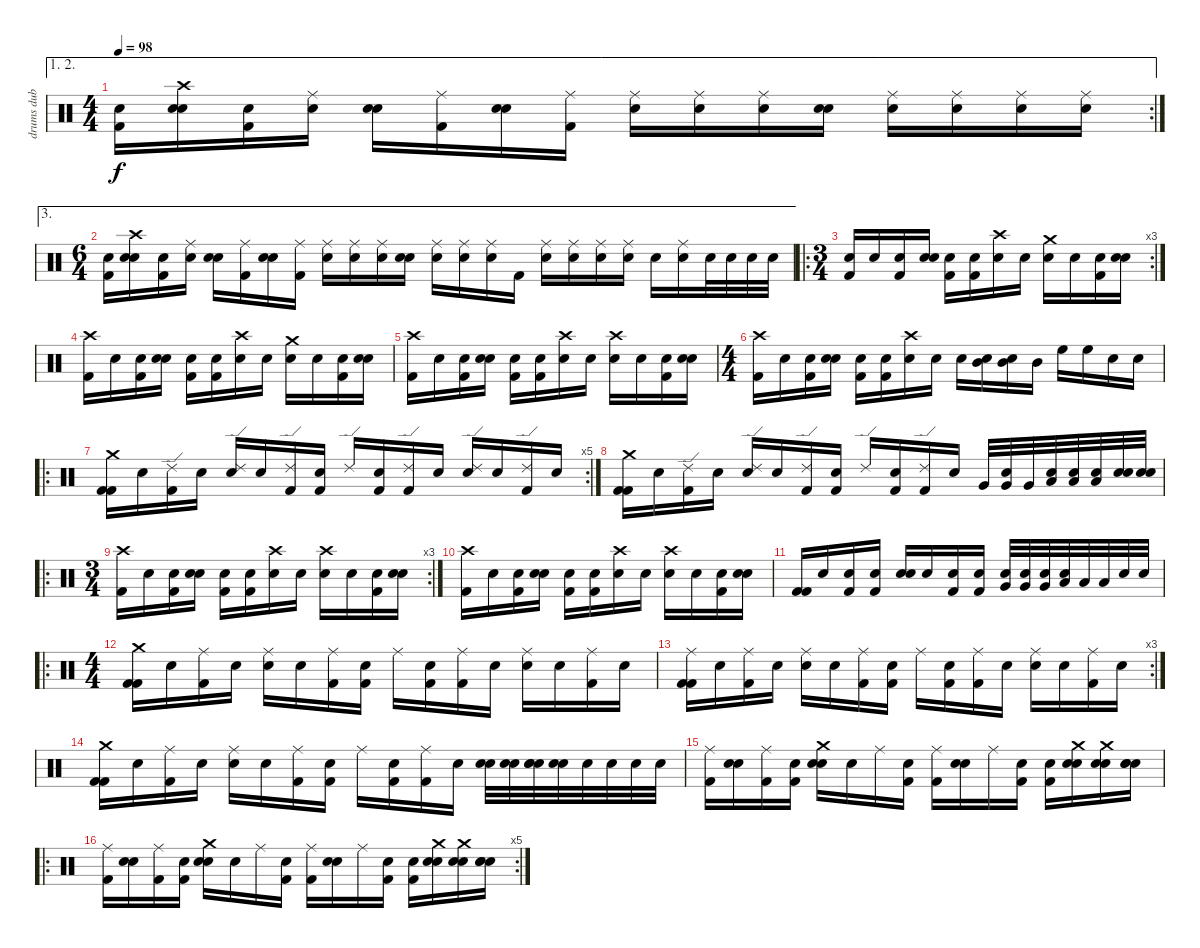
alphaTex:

\track ("drums dub" "drums dub") {instrument percussion}
\staff {score}
\articulation defaults
\ae (1 2)
\rc 2
\ts (4 4)
\tempo 98
\clef neutral
\ks c
("Snare (hit)" "Kick (hit) 2").16{dy f} ("Crash high (hit)" "Snare (hit) 2" "Snare (hit)").16 ("Snare (hit)" "Kick (hit) 2").16 ("Ride (middle)" "Snare (hit) 2").16 ("Snare (hit)" "Snare (hit)").16 ("Ride (middle)" "Kick (hit) 2").16 ("Snare (hit)" "Snare (hit)").16 ("Ride (middle)" "Kick (hit) 2").16 ("Ride (middle)" "Snare (hit) 2").16 ("Ride (middle)" "Snare (hit) 2").16 ("Ride (middle)" "Snare (hit) 2").16 ("Snare (hit)" "Snare (hit)").16 ("Ride (middle)" "Snare (hit) 2").16 ("Ride (middle)" "Snare (hit) 2").16 ("Ride (middle)" "Snare (hit) 2").16 ("Ride (middle)" "Snare (hit) 2").16 |
\ae 3
\ts (6 4)
("Snare (hit)" "Kick (hit) 2").16 ("Crash high (hit)" "Snare (hit) 2" "Snare (hit)").16 ("Snare (hit)" "Kick (hit) 2").16 ("Ride (middle)" "Snare (hit) 2").16 ("Snare (hit)" "Snare (hit)").16 ("Ride (middle)" "Kick (hit) 2").16 ("Snare (hit)" "Snare (hit)").16 ("Ride (middle)" "Kick (hit) 2").16 ("Ride (middle)" "Snare (hit) 2").16 ("Ride (middle)" "Snare (hit) 2").16 ("Ride (middle)" "Snare (hit) 2").16 ("Snare (hit)" "Snare (hit)").16 ("Ride (middle)" "Snare (hit) 2").16 ("Ride (middle)" "Snare (hit) 2").16 ("Ride (middle)" "Snare (hit) 2").16 "Kick (hit) 2".16 ("Ride (middle)" "Snare (hit) 2").16 ("Ride (middle)" "Snare (hit) 2").16 ("Ride (middle)" "Snare (hit) 2").16 ("Ride (middle)" "Snare (hit) 2").16 "Snare (hit)".16 ("Ride (middle)" "Snare (hit) 2").16 "Snare (hit) 2".32 "Snare (hit) 2".32 "Snare (hit) 2".32 "Snare (hit) 2".32 |
\ro
\rc 3
\ts (3 4)
("Snare (hit)" "Kick (hit) 2").16 "Snare (hit)".16 ("Snare (hit)" "Kick (hit) 2").16 ("Snare (hit)" "Snare (hit) 2").16 ("Snare (hit)" "Kick (hit) 2").16 ("Snare (hit)" "Kick (hit) 2").16 ("Crash high (hit)" "Snare (hit) 2").16 "Snare (hit)".16 ("Crash medium (hit)" "Snare (hit) 2").16 "Snare (hit)".16 ("Snare (hit)" "Kick (hit) 2").16 ("Snare (hit)" "Snare (hit) 2").16 |
("Crash high (hit)" "Kick (hit) 2").16 "Snare (hit)".16 ("Snare (hit)" "Kick (hit) 2").16 ("Snare (hit)" "Snare (hit) 2").16 ("Snare (hit)" "Kick (hit) 2").16 ("Snare (hit)" "Kick (hit) 2").16 ("Crash high (hit)" "Snare (hit) 2").16 "Snare (hit)".16 ("Crash medium (hit)" "Snare (hit) 2").16 "Snare (hit)".16 ("Snare (hit)" "Kick (hit) 2").16 ("Snare (hit)" "Snare (hit) 2").16 |
("Crash high (hit)" "Kick (hit) 2").16 "Snare (hit)".16 ("Snare (hit)" "Kick (hit) 2").16 ("Snare (hit)" "Snare (hit) 2").16 ("Snare (hit)" "Kick (hit) 2").16 ("Snare (hit)" "Kick (hit) 2").16 ("Crash high (hit)" "Snare (hit) 2").16 "Snare (hit)".16 ("Crash high (hit)" "Snare (hit) 2").16 "Snare (hit)".16 ("Snare (hit)" "Kick (hit) 2").16 ("Snare (hit)" "Snare (hit) 2").16 |
\ts (4 4)
("Crash high (hit)" "Kick (hit) 2").16 "Snare (hit)".16 ("Snare (hit)" "Kick (hit) 2").16 ("Snare (hit)" "Snare (hit) 2").16 ("Snare (hit)" "Kick (hit) 2").16 ("Snare (hit)" "Kick (hit) 2").16 ("Crash high (hit)" "Snare (hit) 2").16 "Snare (hit)".16 "Snare (hit) 2".16 ("Snare (hit)" "Mid Tom (hit)").16 ("Snare (hit)" "Mid Tom (hit)").16 "Mid Tom (hit)".16 "High Floor Tom (hit)".16 "High Floor Tom (hit)".16 "Snare (hit) 2".16 "Snare (hit) 2".16 |
\ro
\rc 5
("Crash medium (hit)" "Kick (hit) 2" "Kick (hit) 2").16 "Snare (hit)".16 ("Ride (edge) 2" "Kick (hit) 2").16 "Snare (hit)".16 ("Ride (edge) 2" "Snare (hit) 2").16 "Snare (hit)".16 ("Ride (edge) 2" "Kick (hit) 2").16 ("Snare (hit)" "Kick (hit) 2").16 "Ride (edge) 2".16 ("Snare (hit)" "Kick (hit) 2").16 ("Ride (edge) 2" "Kick (hit) 2").16 "Snare (hit)".16 ("Ride (edge) 2" "Snare (hit) 2").16 "Snare (hit)".16 ("Ride (edge) 2" "Kick (hit) 2").16 "Snare (hit)".16 |
("Crash medium (hit)" "Kick (hit) 2" "Kick (hit) 2").16 "Snare (hit)".16 ("Ride (edge) 2" "Kick (hit) 2").16 "Snare (hit)".16 ("Ride (edge) 2" "Snare (hit) 2").16 "Snare (hit)".16 ("Ride (edge) 2" "Kick (hit) 2").16 ("Snare (hit)" "Kick (hit) 2").16 "Ride (edge) 2".16 ("Snare (hit)" "Kick (hit) 2").16 ("Ride (edge) 2" "Kick (hit) 2").16 "Snare (hit)".16 "Very Low Tom (hit)".32 ("Snare (hit)" "Very Low Tom (hit)").32 "Very Low Tom (hit)".32 ("Snare (hit)" "Low Floor Tom (hit)").32 ("Snare (hit)" "Low Floor Tom (hit)").32 ("Snare (hit)" "Low Floor Tom (hit)").32 ("Snare (hit)" "Snare (hit) 2").32 ("Snare (hit)" "Snare (hit) 2").32 |
\ro
\rc 3
\ts (3 4)
("Crash high (hit)" "Kick (hit) 2").16 "Snare (hit)".16 ("Snare (hit)" "Kick (hit) 2").16 ("Snare (hit)" "Snare (hit) 2").16 ("Snare (hit)" "Kick (hit) 2").16 ("Snare (hit)" "Kick (hit) 2").16 ("Crash high (hit)" "Snare (hit) 2").16 "Snare (hit)".16 ("Crash high (hit)" "Snare (hit) 2").16 "Snare (hit)".16 ("Snare (hit)" "Kick (hit) 2").16 ("Snare (hit)" "Snare (hit) 2").16 |
("Crash high (hit)" "Kick (hit) 2").16 "Snare (hit)".16 ("Snare (hit)" "Kick (hit) 2").16 ("Snare (hit)" "Snare (hit) 2").16 ("Snare (hit)" "Kick (hit) 2").16 ("Snare (hit)" "Kick (hit) 2").16 ("Crash high (hit)" "Snare (hit) 2").16 "Snare (hit)".16 ("Crash high (hit)" "Snare (hit) 2").16 "Snare (hit)".16 ("Snare (hit)" "Kick (hit) 2").16 ("Snare (hit)" "Snare (hit) 2").16 |
("Kick (hit) 2" "Kick (hit) 2").16 "Snare (hit)".16 ("Snare (hit)" "Kick (hit) 2").16 ("Snare (hit)" "Kick (hit) 2").16 ("Snare (hit)" "Snare (hit)").16 "Snare (hit)".16 ("Snare (hit)" "Kick (hit) 2").16 ("Snare (hit)" "Kick (hit) 2").16 ("Snare (hit)" "Very Low Tom (hit)").32 ("Snare (hit)" "Very Low Tom (hit)").32 ("Snare (hit)" "Very Low Tom (hit)").32 ("Snare (hit)" "Low Floor Tom (hit)").32 "Low Floor Tom (hit)".32 "Low Floor Tom (hit)".32 "Snare (hit) 2".32 "Snare (hit) 2".32 |
\ro
\ts (4 4)
("Crash medium (hit)" "Kick (hit) 2" "Kick (hit) 2").16 "Snare (hit)".16 ("Ride (middle)" "Kick (hit) 2").16 "Snare (hit)".16 ("Ride (middle)" "Snare (hit) 2").16 "Snare (hit)".16 ("Ride (middle)" "Kick (hit) 2").16 ("Snare (hit)" "Kick (hit) 2").16 "Ride (middle)".16 ("Snare (hit)" "Kick (hit) 2").16 ("Ride (middle)" "Kick (hit) 2").16 "Snare (hit)".16 ("Ride (middle)" "Snare (hit) 2").16 "Snare (hit)".16 ("Ride (middle)" "Kick (hit) 2").16 "Snare (hit)".16 |
\rc 3
("Ride (middle)" "Kick (hit) 2" "Kick (hit) 2").16 "Snare (hit)".16 ("Ride (middle)" "Kick (hit) 2").16 "Snare (hit)".16 ("Ride (middle)" "Snare (hit) 2").16 "Snare (hit)".16 ("Ride (middle)" "Kick (hit) 2").16 ("Snare (hit)" "Kick (hit) 2").16 "Ride (middle)".16 ("Snare (hit)" "Kick (hit) 2").16 ("Ride (middle)" "Kick (hit) 2").16 "Snare (hit)".16 ("Ride (middle)" "Snare (hit) 2").16 "Snare (hit)".16 ("Ride (middle)" "Kick (hit) 2").16 "Snare (hit)".16 |
("Crash medium (hit)" "Kick (hit) 2" "Kick (hit) 2").16 "Snare (hit)".16 ("Ride (middle)" "Kick (hit) 2").16 "Snare (hit)".16 ("Ride (middle)" "Snare (hit) 2").16 "Snare (hit)".16 ("Ride (middle)" "Kick (hit) 2").16 ("Snare (hit)" "Kick (hit) 2").16 "Ride (middle)".16 ("Snare (hit)" "Kick (hit) 2").16 ("Ride (middle)" "Kick (hit) 2").16 "Snare (hit)".16 ("Snare (hit)" "Snare (hit) 2").32 ("Snare (hit)" "Snare (hit) 2").32 ("Snare (hit)" "Snare (hit) 2" "Snare (hit)").32 ("Snare (hit)" "Snare (hit) 2").32 "Snare (hit)".32 "Snare (hit) 2".32 "Snare (hit) 2".32 "Snare (hit) 2".32 |
("Ride (middle)" "Kick (hit) 2").16 ("Snare (hit)" "Snare (hit) 2").16 ("Ride (middle)" "Kick (hit) 2").16 ("Snare (hit)" "Kick (hit) 2").16 ("Snare (hit)" "Crash medium (hit)" "Snare (hit) 2").16 "Snare (hit)".16 "Ride (middle)".16 ("Snare (hit)" "Kick (hit) 2").16 ("Ride (middle)" "Kick (hit) 2").16 ("Snare (hit)" "Snare (hit) 2").16 "Ride (middle)".16 ("Snare (hit)" "Kick (hit) 2").16 ("Snare (hit)" "Kick (hit) 2").16 ("Snare (hit)" "Crash medium (hit)" "Snare (hit) 2").16 ("Snare (hit)" "Crash medium (hit)" "Snare (hit) 2").16 ("Snare (hit)" "Snare (hit)" "Snare (hit)").16 |
\ro
\rc 5
("Ride (middle)" "Kick (hit) 2").16 ("Snare (hit)" "Snare (hit) 2").16 ("Ride (middle)" "Kick (hit) 2").16 ("Snare (hit)" "Kick (hit) 2").16 ("Snare (hit)" "Crash medium (hit)" "Snare (hit) 2").16 "Snare (hit)".16 "Ride (middle)".16 ("Snare (hit)" "Kick (hit) 2").16 ("Ride (middle)" "Kick (hit) 2").16 ("Snare (hit)" "Snare (hit) 2").16 "Ride (middle)".16 ("Snare (hit)" "Kick (hit) 2").16 ("Snare (hit)" "Kick (hit) 2").16 ("Snare (hit)" "Crash medium (hit)" "Snare (hit) 2").16 ("Snare (hit)" "Crash medium (hit)" "Snare (hit) 2").16 ("Snare (hit)" "Snare (hit)" "Snare (hit)").16
